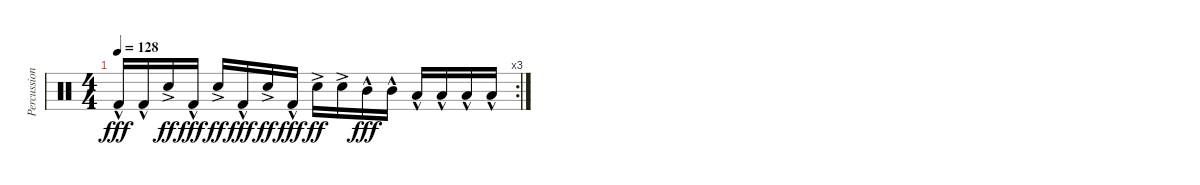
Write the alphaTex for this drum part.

\track ("Percussion" "Percussion") {instrument percussion}
\staff {score}
\articulation defaults
\rc 3
\ts (4 4)
\tempo 128
\clef neutral
\ks c "Kick (hit) 2"{hac}.16{dy fff} "Kick (hit) 2"{hac}.16 "Snare (hit) 2"{ac}.16{dy ff} "Kick (hit) 2"{hac}.16{dy fff} "Snare (hit) 2"{ac}.16{dy ff} "Kick (hit) 2"{hac}.16{dy fff} "Snare (hit) 2"{ac}.16{dy ff} "Kick (hit) 2"{hac}.16{dy fff} "Snare (hit) 2"{ac}.16{dy ff} "Snare (hit) 2"{ac}.16 "Mid Tom (hit)"{hac}.16{dy fff} "Mid Tom (hit)"{hac}.16 "Low Tom (hit)"{hac}.16 "Low Tom (hit)"{hac}.16 "Low Tom (hit)"{hac}.16 "Low Tom (hit)"{hac}.16
